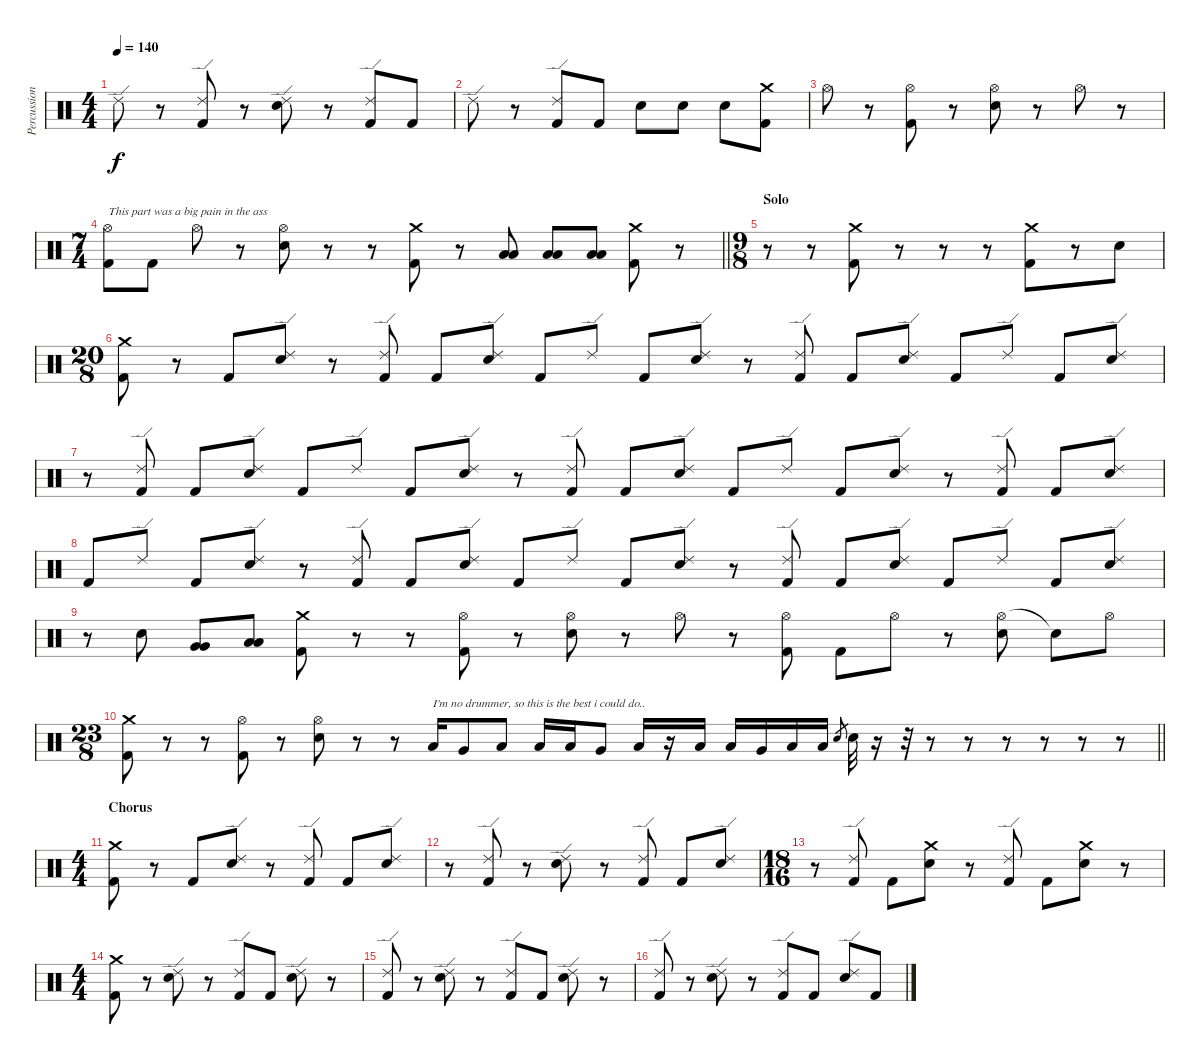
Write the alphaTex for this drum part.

\track ("Percussion" "Percussion") {instrument percussion}
\staff {score}
\articulation defaults
\ts (4 4)
\tempo 140
\clef neutral
\ks c "Ride (edge) 2".8{dy f}
r.8 ("Ride (edge) 2" "Kick (hit) 2").8 r.8 ("Ride (edge) 2" "Electric Snare (hit)").8 r.8 ("Ride (edge) 2" "Kick (hit) 2").8 "Kick (hit) 2".8 |
"Ride (edge) 2".8 r.8 ("Ride (edge) 2" "Kick (hit) 2").8 "Kick (hit) 2".8 "Electric Snare (hit)".8 "Electric Snare (hit)".8 "Electric Snare (hit)".8 ("Crash medium (hit)" "Kick (hit) 2").8 |
"Hi-Hat (open)".8 r.8 ("Hi-Hat (open)" "Kick (hit) 2").8 r.8 ("Hi-Hat (open)" "Electric Snare (hit)").8 r.8 "Hi-Hat (open)".8 r.8 |
\ts (7 4)
\barLineRight lightlight
("Hi-Hat (open)" "Kick (hit) 2").8{txt "This part was a big pain in the ass"} "Kick (hit) 2".8 "Hi-Hat (open)".8 r.8 ("Hi-Hat (open)" "Electric Snare (hit)").8 r.8 r.8 ("Crash medium (hit)" "Kick (hit) 2").8 r.8 ("Low Floor Tom (hit)" "Low Tom (hit)").8 ("Low Floor Tom (hit)" "Low Tom (hit)").8 ("Low Floor Tom (hit)" "Low Tom (hit)").8 ("Crash medium (hit)" "Kick (hit) 2").8 r.8 |
\ts (9 8)
\section ("" "Solo")
r.8 r.8 ("Crash medium (hit)" "Kick (hit) 2").8 r.8 r.8 r.8 ("Crash medium (hit)" "Kick (hit) 2").8 r.8 "Electric Snare (hit)".8 |
\ts (20 8)
("Crash medium (hit)" "Kick (hit) 2").8 r.8 "Kick (hit) 2".8 ("Ride (edge) 2" "Electric Snare (hit)").8 r.8 ("Ride (edge) 2" "Kick (hit) 2").8 "Kick (hit) 2".8 ("Ride (edge) 2" "Electric Snare (hit)").8 "Kick (hit) 2".8 "Ride (edge) 2".8 "Kick (hit) 2".8 ("Ride (edge) 2" "Electric Snare (hit)").8 r.8 ("Ride (edge) 2" "Kick (hit) 2").8 "Kick (hit) 2".8 ("Ride (edge) 2" "Electric Snare (hit)").8 "Kick (hit) 2".8 "Ride (edge) 2".8 "Kick (hit) 2".8 ("Ride (edge) 2" "Electric Snare (hit)").8 |
r.8 ("Ride (edge) 2" "Kick (hit) 2").8 "Kick (hit) 2".8 ("Ride (edge) 2" "Electric Snare (hit)").8 "Kick (hit) 2".8 "Ride (edge) 2".8 "Kick (hit) 2".8 ("Ride (edge) 2" "Electric Snare (hit)").8 r.8 ("Ride (edge) 2" "Kick (hit) 2").8 "Kick (hit) 2".8 ("Ride (edge) 2" "Electric Snare (hit)").8 "Kick (hit) 2".8 "Ride (edge) 2".8 "Kick (hit) 2".8 ("Ride (edge) 2" "Electric Snare (hit)").8 r.8 ("Ride (edge) 2" "Kick (hit) 2").8 "Kick (hit) 2".8 ("Ride (edge) 2" "Electric Snare (hit)").8 |
"Kick (hit) 2".8 "Ride (edge) 2".8 "Kick (hit) 2".8 ("Ride (edge) 2" "Electric Snare (hit)").8 r.8 ("Ride (edge) 2" "Kick (hit) 2").8 "Kick (hit) 2".8 ("Ride (edge) 2" "Electric Snare (hit)").8 "Kick (hit) 2".8 "Ride (edge) 2".8 "Kick (hit) 2".8 ("Ride (edge) 2" "Electric Snare (hit)").8 r.8 ("Ride (edge) 2" "Kick (hit) 2").8 "Kick (hit) 2".8 ("Ride (edge) 2" "Electric Snare (hit)").8 "Kick (hit) 2".8 "Ride (edge) 2".8 "Kick (hit) 2".8 ("Ride (edge) 2" "Electric Snare (hit)").8 |
r.8 "Electric Snare (hit)".8 ("Very Low Tom (hit)" "Very Low Tom (hit)").8 ("Low Tom (hit)" "Low Tom (hit)").8 ("Crash medium (hit)" "Kick (hit) 2").8 r.8 r.8 ("Hi-Hat (open)" "Kick (hit) 2").8 r.8 ("Hi-Hat (open)" "Electric Snare (hit)").8 r.8 "Hi-Hat (open)".8 r.8 ("Hi-Hat (open)" "Kick (hit) 2").8 "Kick (hit) 2".8 "Hi-Hat (open)".8 r.8 ("Hi-Hat (open)" "Electric Snare (hit)").8 "Snare (hit)"{t}.8 "Hi-Hat (open)".8 |
\ts (23 8)
\barLineRight lightlight
("Crash medium (hit)" "Kick (hit) 2").8 r.8 r.8 ("Hi-Hat (open)" "Kick (hit) 2").8 r.8 ("Hi-Hat (open)" "Electric Snare (hit)").8 r.8 r.8 "Low Tom (hit)".16{txt "I'm no drummer, so this is the best i could do.."} "Very Low Tom (hit)".8 "Low Floor Tom (hit)".8 "Low Floor Tom (hit)".16 "Low Tom (hit)".16 "Very Low Tom (hit)".8 "Low Floor Tom (hit)".16 r.16 "Low Floor Tom (hit)".16 "Low Tom (hit)".16 "Very Low Tom (hit)".16 "Low Floor Tom (hit)".16 "Low Tom (hit)".16 "Electric Snare (hit)".8{gr} "Electric Snare (hit)".32 r.16 r.32 r.8 r.8 r.8 r.8 r.8 r.8 |
\ts (4 4)
\section ("" "Chorus")
("Crash medium (hit)" "Kick (hit) 2").8 r.8 "Kick (hit) 2".8 ("Ride (edge) 2" "Electric Snare (hit)").8 r.8 ("Ride (edge) 2" "Kick (hit) 2").8 "Kick (hit) 2".8 ("Ride (edge) 2" "Electric Snare (hit)").8 |
r.8 ("Ride (edge) 2" "Kick (hit) 2").8 r.8 ("Ride (edge) 2" "Electric Snare (hit)").8 r.8 ("Ride (edge) 2" "Kick (hit) 2").8 "Kick (hit) 2".8 ("Ride (edge) 2" "Electric Snare (hit)").8 |
\ts (18 16)
r.8 ("Ride (edge) 2" "Kick (hit) 2").8 "Kick (hit) 2".8 ("Crash medium (hit)" "Electric Snare (hit)").8 r.8 ("Ride (edge) 2" "Kick (hit) 2").8 "Kick (hit) 2".8 ("Crash medium (hit)" "Electric Snare (hit)").8 r.8 |
\ts (4 4)
("Crash medium (hit)" "Kick (hit) 2").8 r.8 ("Ride (edge) 2" "Electric Snare (hit)").8 r.8 ("Ride (edge) 2" "Kick (hit) 2").8 "Kick (hit) 2".8 ("Ride (edge) 2" "Electric Snare (hit)").8 r.8 |
("Ride (edge) 2" "Kick (hit) 2").8 r.8 ("Ride (edge) 2" "Electric Snare (hit)").8 r.8 ("Ride (edge) 2" "Kick (hit) 2").8 "Kick (hit) 2".8 ("Ride (edge) 2" "Electric Snare (hit)").8 r.8 |
("Ride (edge) 2" "Kick (hit) 2").8 r.8 ("Ride (edge) 2" "Electric Snare (hit)").8 r.8 ("Ride (edge) 2" "Kick (hit) 2").8 "Kick (hit) 2".8 ("Ride (edge) 2" "Electric Snare (hit)").8 "Kick (hit) 2".8
